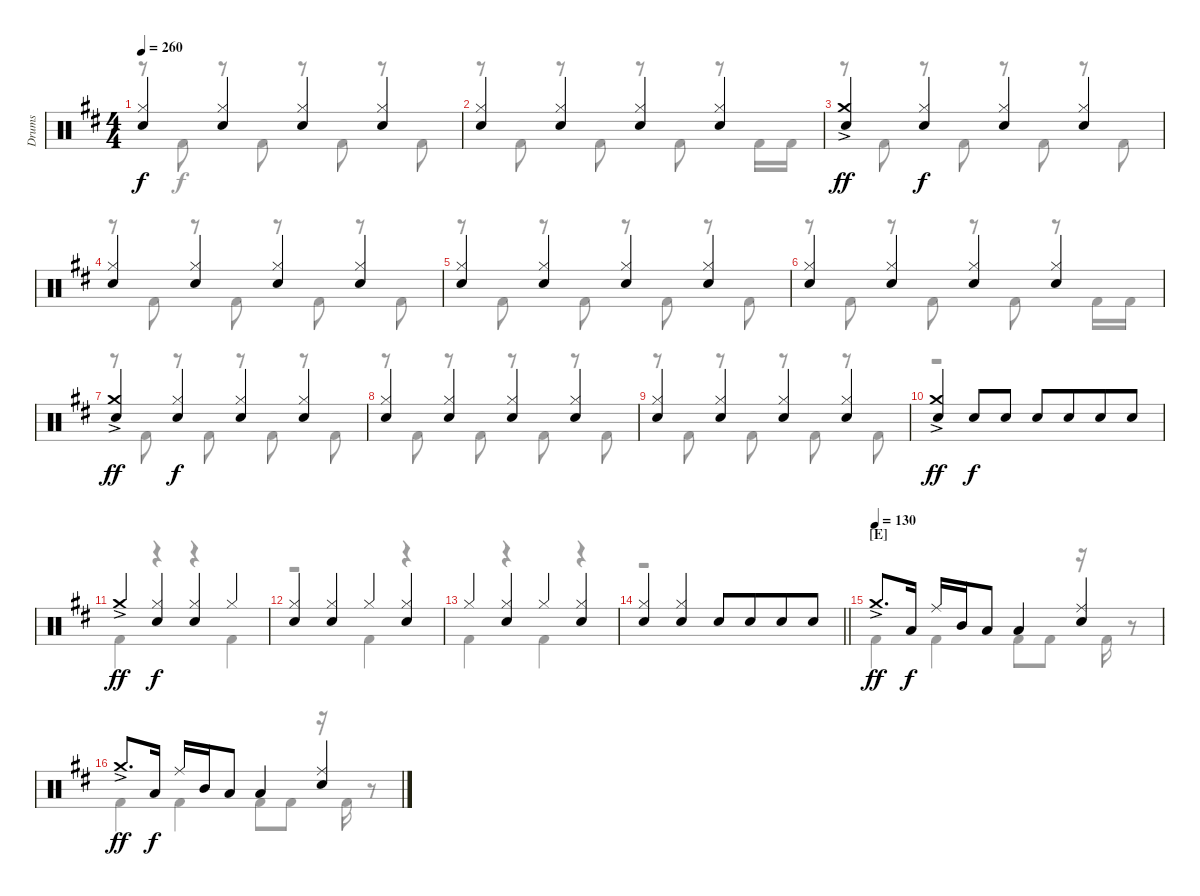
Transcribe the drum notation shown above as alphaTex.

\track ("Drums" "Drums") {instrument percussion}
\staff {score}
\articulation defaults
\voice
\ts (4 4)
\tempo 260
\clef neutral
\ks bminor
("Hi-Hat (closed)" "Snare (hit) 2").4{dy f} ("Hi-Hat (closed)" "Snare (hit) 2").4 ("Hi-Hat (closed)" "Snare (hit) 2").4 ("Hi-Hat (closed)" "Snare (hit) 2").4 |
("Hi-Hat (closed)" "Snare (hit) 2").4 ("Hi-Hat (closed)" "Snare (hit) 2").4 ("Hi-Hat (closed)" "Snare (hit) 2").4 ("Hi-Hat (closed)" "Snare (hit) 2").4 |
("Crash medium (hit)"{ac} "Snare (hit) 2").4{dy ff} ("Hi-Hat (closed)" "Snare (hit) 2").4{dy f} ("Hi-Hat (closed)" "Snare (hit) 2").4 ("Hi-Hat (closed)" "Snare (hit) 2").4 |
("Hi-Hat (closed)" "Snare (hit) 2").4 ("Hi-Hat (closed)" "Snare (hit) 2").4 ("Hi-Hat (closed)" "Snare (hit) 2").4 ("Hi-Hat (closed)" "Snare (hit) 2").4 |
("Hi-Hat (closed)" "Snare (hit) 2").4 ("Hi-Hat (closed)" "Snare (hit) 2").4 ("Hi-Hat (closed)" "Snare (hit) 2").4 ("Hi-Hat (closed)" "Snare (hit) 2").4 |
("Hi-Hat (closed)" "Snare (hit) 2").4 ("Hi-Hat (closed)" "Snare (hit) 2").4 ("Hi-Hat (closed)" "Snare (hit) 2").4 ("Hi-Hat (closed)" "Snare (hit) 2").4 |
("Crash medium (hit)"{ac} "Snare (hit) 2").4{dy ff} ("Hi-Hat (closed)" "Snare (hit) 2").4{dy f} ("Hi-Hat (closed)" "Snare (hit) 2").4 ("Hi-Hat (closed)" "Snare (hit) 2").4 |
("Hi-Hat (closed)" "Snare (hit) 2").4 ("Hi-Hat (closed)" "Snare (hit) 2").4 ("Hi-Hat (closed)" "Snare (hit) 2").4 ("Hi-Hat (closed)" "Snare (hit) 2").4 |
("Hi-Hat (closed)" "Snare (hit) 2").4 ("Hi-Hat (closed)" "Snare (hit) 2").4 ("Hi-Hat (closed)" "Snare (hit) 2").4 ("Hi-Hat (closed)" "Snare (hit) 2").4 |
("Crash medium (hit)"{ac} "Snare (hit) 2").4{dy ff} "Snare (hit) 2".8{dy f} "Snare (hit) 2".8 "Snare (hit) 2".8 "Snare (hit) 2".8{beam merge} "Snare (hit) 2".8 "Snare (hit) 2".8 |
"Crash medium (hit)"{ac}.4{dy ff} ("Hi-Hat (closed)" "Snare (hit) 2").4{dy f} ("Hi-Hat (closed)" "Snare (hit) 2").4 "Hi-Hat (closed)".4 |
("Hi-Hat (closed)" "Snare (hit) 2").4 ("Hi-Hat (closed)" "Snare (hit) 2").4 "Hi-Hat (closed)".4 ("Hi-Hat (closed)" "Snare (hit) 2").4 |
"Hi-Hat (closed)".4 ("Hi-Hat (closed)" "Snare (hit) 2").4 "Hi-Hat (closed)".4 ("Hi-Hat (closed)" "Snare (hit) 2").4 |
\barLineRight lightlight
("Hi-Hat (closed)" "Snare (hit) 2").4 ("Hi-Hat (closed)" "Snare (hit) 2").4 "Snare (hit) 2".8 "Snare (hit) 2".8{beam merge} "Snare (hit) 2".8 "Snare (hit) 2".8 |
\section ("" "[E]")
\tempo (130)
"Crash medium (hit)"{ac}.8{d dy ff} "Low Tom (hit)".16{dy f} "Ride (middle)".16 "Mid Tom (hit)".16 "Low Tom (hit)".8 "Low Tom (hit)".4 ("Ride (middle)" "Snare (hit) 2").4 |
"Crash medium (hit)"{ac}.8{d dy ff} "Low Tom (hit)".16{dy f} "Ride (middle)".16 "Mid Tom (hit)".16 "Low Tom (hit)".8 "Low Tom (hit)".4 ("Ride (middle)" "Snare (hit) 2").4
\voice
\clef neutral
\ottava regular
\simile none
\ks bminor
r.8{dy f} "Kick (hit) 2".8 r.8 "Kick (hit) 2".8 r.8 "Kick (hit) 2".8 r.8 "Kick (hit) 2".8 |
r.8 "Kick (hit) 2".8 r.8 "Kick (hit) 2".8 r.8 "Kick (hit) 2".8 r.8 "Kick (hit) 2".16 "Kick (hit) 2".16 |
r.8 "Kick (hit) 2".8 r.8 "Kick (hit) 2".8 r.8 "Kick (hit) 2".8 r.8 "Kick (hit) 2".8 |
r.8 "Kick (hit) 2".8 r.8 "Kick (hit) 2".8 r.8 "Kick (hit) 2".8 r.8 "Kick (hit) 2".8 |
r.8 "Kick (hit) 2".8 r.8 "Kick (hit) 2".8 r.8 "Kick (hit) 2".8 r.8 "Kick (hit) 2".8 |
r.8 "Kick (hit) 2".8 r.8 "Kick (hit) 2".8 r.8 "Kick (hit) 2".8 r.8 "Kick (hit) 2".16 "Kick (hit) 2".16 |
r.8 "Kick (hit) 2".8 r.8 "Kick (hit) 2".8 r.8 "Kick (hit) 2".8 r.8 "Kick (hit) 2".8 |
r.8 "Kick (hit) 2".8 r.8 "Kick (hit) 2".8 r.8 "Kick (hit) 2".8 r.8 "Kick (hit) 2".8 |
r.8 "Kick (hit) 2".8 r.8 "Kick (hit) 2".8 r.8 "Kick (hit) 2".8 r.8 "Kick (hit) 2".8 |
r.1 |
"Kick (hit) 2".4 r.4 r.4 "Kick (hit) 2".4 |
r.2 "Kick (hit) 2".4 r.4 |
"Kick (hit) 2".4 r.4 "Kick (hit) 2".4 r.4 |
\barLineRight lightlight
r.1 |
"Kick (hit) 2".4 "Kick (hit) 2".4 "Kick (hit) 2".8 "Kick (hit) 2".8 r.16 "Kick (hit) 2".16 r.8 |
"Kick (hit) 2".4 "Kick (hit) 2".4 "Kick (hit) 2".8 "Kick (hit) 2".8 r.16 "Kick (hit) 2".16 r.8
